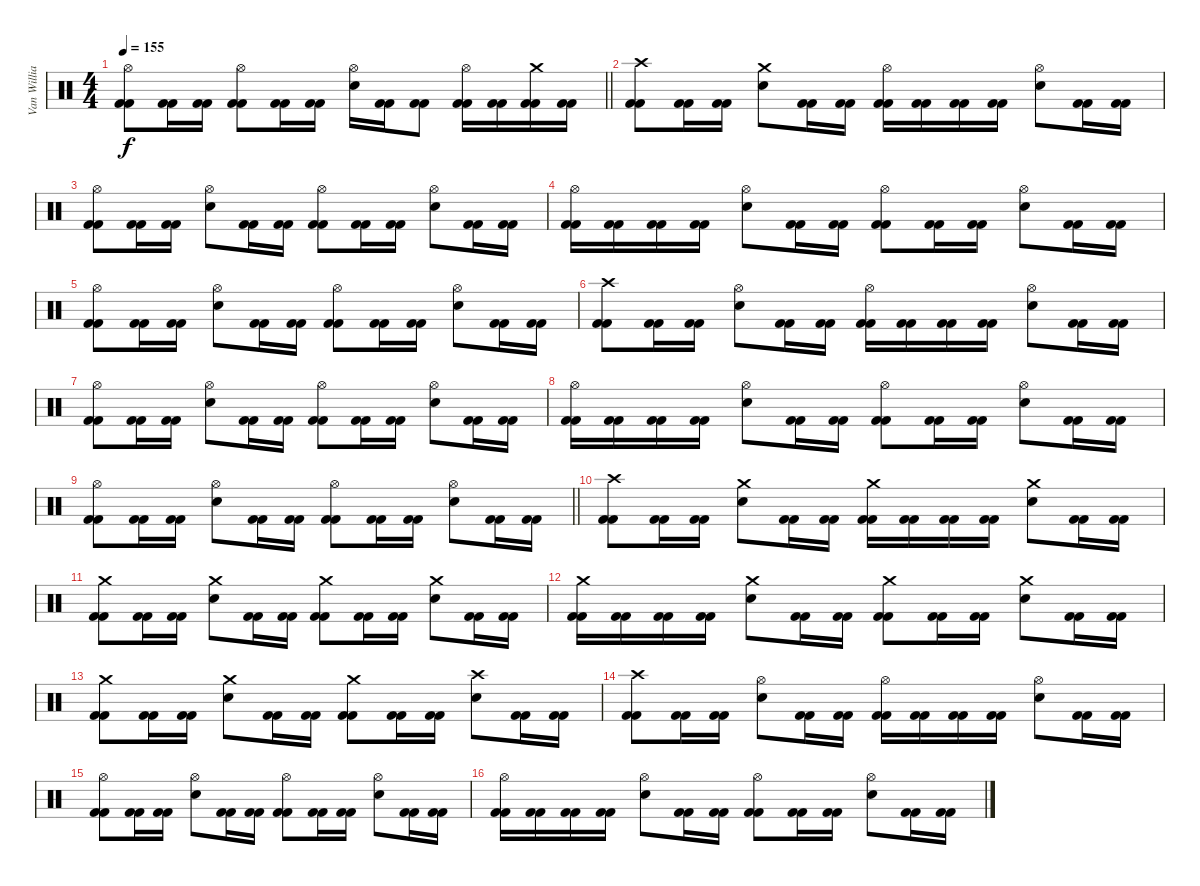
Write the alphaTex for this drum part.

\track ("Van Williams" "Van Willia") {instrument percussion}
\staff {score}
\articulation defaults
\ts (4 4)
\tempo 155
\clef neutral
\barLineRight lightlight
\ks c
("Hi-Hat (open)" "Kick (hit) 2" "Kick (hit) 2").8{dy f} ("Kick (hit) 2" "Kick (hit) 2").16 ("Kick (hit) 2" "Kick (hit) 2").16 ("Hi-Hat (open)" "Kick (hit) 2" "Kick (hit) 2").8 ("Kick (hit) 2" "Kick (hit) 2").16 ("Kick (hit) 2" "Kick (hit) 2").16 ("Hi-Hat (open)" "Electric Snare (hit)").16 ("Kick (hit) 2" "Kick (hit) 2").16 ("Kick (hit) 2" "Kick (hit) 2").8 ("Hi-Hat (open)" "Kick (hit) 2" "Kick (hit) 2").16 ("Kick (hit) 2" "Kick (hit) 2").16 ("Crash medium (hit)" "Kick (hit) 2" "Kick (hit) 2").16 ("Kick (hit) 2" "Kick (hit) 2").16 |
("Crash high (hit)" "Kick (hit) 2" "Kick (hit) 2").8 ("Kick (hit) 2" "Kick (hit) 2").16 ("Kick (hit) 2" "Kick (hit) 2").16 ("Crash medium (hit)" "Electric Snare (hit)").8 ("Kick (hit) 2" "Kick (hit) 2").16 ("Kick (hit) 2" "Kick (hit) 2").16 ("Hi-Hat (open)" "Kick (hit) 2" "Kick (hit) 2").16 ("Kick (hit) 2" "Kick (hit) 2").16 ("Kick (hit) 2" "Kick (hit) 2").16 ("Kick (hit) 2" "Kick (hit) 2").16 ("Hi-Hat (open)" "Electric Snare (hit)").8 ("Kick (hit) 2" "Kick (hit) 2").16 ("Kick (hit) 2" "Kick (hit) 2").16 |
("Hi-Hat (open)" "Kick (hit) 2" "Kick (hit) 2").8 ("Kick (hit) 2" "Kick (hit) 2").16 ("Kick (hit) 2" "Kick (hit) 2").16 ("Hi-Hat (open)" "Electric Snare (hit)").8 ("Kick (hit) 2" "Kick (hit) 2").16 ("Kick (hit) 2" "Kick (hit) 2").16 ("Hi-Hat (open)" "Kick (hit) 2" "Kick (hit) 2").8 ("Kick (hit) 2" "Kick (hit) 2").16 ("Kick (hit) 2" "Kick (hit) 2").16 ("Hi-Hat (open)" "Electric Snare (hit)").8 ("Kick (hit) 2" "Kick (hit) 2").16 ("Kick (hit) 2" "Kick (hit) 2").16 |
("Hi-Hat (open)" "Kick (hit) 2" "Kick (hit) 2").16 ("Kick (hit) 2" "Kick (hit) 2").16 ("Kick (hit) 2" "Kick (hit) 2").16 ("Kick (hit) 2" "Kick (hit) 2").16 ("Hi-Hat (open)" "Electric Snare (hit)").8 ("Kick (hit) 2" "Kick (hit) 2").16 ("Kick (hit) 2" "Kick (hit) 2").16 ("Hi-Hat (open)" "Kick (hit) 2" "Kick (hit) 2").8 ("Kick (hit) 2" "Kick (hit) 2").16 ("Kick (hit) 2" "Kick (hit) 2").16 ("Hi-Hat (open)" "Electric Snare (hit)").8 ("Kick (hit) 2" "Kick (hit) 2").16 ("Kick (hit) 2" "Kick (hit) 2").16 |
("Hi-Hat (open)" "Kick (hit) 2" "Kick (hit) 2").8 ("Kick (hit) 2" "Kick (hit) 2").16 ("Kick (hit) 2" "Kick (hit) 2").16 ("Hi-Hat (open)" "Electric Snare (hit)").8 ("Kick (hit) 2" "Kick (hit) 2").16 ("Kick (hit) 2" "Kick (hit) 2").16 ("Hi-Hat (open)" "Kick (hit) 2" "Kick (hit) 2").8 ("Kick (hit) 2" "Kick (hit) 2").16 ("Kick (hit) 2" "Kick (hit) 2").16 ("Hi-Hat (open)" "Electric Snare (hit)").8 ("Kick (hit) 2" "Kick (hit) 2").16 ("Kick (hit) 2" "Kick (hit) 2").16 |
("Crash high (hit)" "Kick (hit) 2" "Kick (hit) 2").8 ("Kick (hit) 2" "Kick (hit) 2").16 ("Kick (hit) 2" "Kick (hit) 2").16 ("Hi-Hat (open)" "Electric Snare (hit)").8 ("Kick (hit) 2" "Kick (hit) 2").16 ("Kick (hit) 2" "Kick (hit) 2").16 ("Hi-Hat (open)" "Kick (hit) 2" "Kick (hit) 2").16 ("Kick (hit) 2" "Kick (hit) 2").16 ("Kick (hit) 2" "Kick (hit) 2").16 ("Kick (hit) 2" "Kick (hit) 2").16 ("Hi-Hat (open)" "Electric Snare (hit)").8 ("Kick (hit) 2" "Kick (hit) 2").16 ("Kick (hit) 2" "Kick (hit) 2").16 |
("Hi-Hat (open)" "Kick (hit) 2" "Kick (hit) 2").8 ("Kick (hit) 2" "Kick (hit) 2").16 ("Kick (hit) 2" "Kick (hit) 2").16 ("Hi-Hat (open)" "Electric Snare (hit)").8 ("Kick (hit) 2" "Kick (hit) 2").16 ("Kick (hit) 2" "Kick (hit) 2").16 ("Hi-Hat (open)" "Kick (hit) 2" "Kick (hit) 2").8 ("Kick (hit) 2" "Kick (hit) 2").16 ("Kick (hit) 2" "Kick (hit) 2").16 ("Hi-Hat (open)" "Electric Snare (hit)").8 ("Kick (hit) 2" "Kick (hit) 2").16 ("Kick (hit) 2" "Kick (hit) 2").16 |
("Hi-Hat (open)" "Kick (hit) 2" "Kick (hit) 2").16 ("Kick (hit) 2" "Kick (hit) 2").16 ("Kick (hit) 2" "Kick (hit) 2").16 ("Kick (hit) 2" "Kick (hit) 2").16 ("Hi-Hat (open)" "Electric Snare (hit)").8 ("Kick (hit) 2" "Kick (hit) 2").16 ("Kick (hit) 2" "Kick (hit) 2").16 ("Hi-Hat (open)" "Kick (hit) 2" "Kick (hit) 2").8 ("Kick (hit) 2" "Kick (hit) 2").16 ("Kick (hit) 2" "Kick (hit) 2").16 ("Hi-Hat (open)" "Electric Snare (hit)").8 ("Kick (hit) 2" "Kick (hit) 2").16 ("Kick (hit) 2" "Kick (hit) 2").16 |
\barLineRight lightlight
("Hi-Hat (open)" "Kick (hit) 2" "Kick (hit) 2").8 ("Kick (hit) 2" "Kick (hit) 2").16 ("Kick (hit) 2" "Kick (hit) 2").16 ("Hi-Hat (open)" "Electric Snare (hit)").8 ("Kick (hit) 2" "Kick (hit) 2").16 ("Kick (hit) 2" "Kick (hit) 2").16 ("Hi-Hat (open)" "Kick (hit) 2" "Kick (hit) 2").8 ("Kick (hit) 2" "Kick (hit) 2").16 ("Kick (hit) 2" "Kick (hit) 2").16 ("Hi-Hat (open)" "Electric Snare (hit)").8 ("Kick (hit) 2" "Kick (hit) 2").16 ("Kick (hit) 2" "Kick (hit) 2").16 |
("Crash high (hit)" "Kick (hit) 2" "Kick (hit) 2").8 ("Kick (hit) 2" "Kick (hit) 2").16 ("Kick (hit) 2" "Kick (hit) 2").16 ("Crash medium (hit)" "Electric Snare (hit)").8 ("Kick (hit) 2" "Kick (hit) 2").16 ("Kick (hit) 2" "Kick (hit) 2").16 ("Crash medium (hit)" "Kick (hit) 2" "Kick (hit) 2").16 ("Kick (hit) 2" "Kick (hit) 2").16 ("Kick (hit) 2" "Kick (hit) 2").16 ("Kick (hit) 2" "Kick (hit) 2").16 ("Crash medium (hit)" "Electric Snare (hit)").8 ("Kick (hit) 2" "Kick (hit) 2").16 ("Kick (hit) 2" "Kick (hit) 2").16 |
("Crash medium (hit)" "Kick (hit) 2" "Kick (hit) 2").8 ("Kick (hit) 2" "Kick (hit) 2").16 ("Kick (hit) 2" "Kick (hit) 2").16 ("Crash medium (hit)" "Electric Snare (hit)").8 ("Kick (hit) 2" "Kick (hit) 2").16 ("Kick (hit) 2" "Kick (hit) 2").16 ("Crash medium (hit)" "Kick (hit) 2" "Kick (hit) 2").8 ("Kick (hit) 2" "Kick (hit) 2").16 ("Kick (hit) 2" "Kick (hit) 2").16 ("Crash medium (hit)" "Electric Snare (hit)").8 ("Kick (hit) 2" "Kick (hit) 2").16 ("Kick (hit) 2" "Kick (hit) 2").16 |
("Crash medium (hit)" "Kick (hit) 2" "Kick (hit) 2").16 ("Kick (hit) 2" "Kick (hit) 2").16 ("Kick (hit) 2" "Kick (hit) 2").16 ("Kick (hit) 2" "Kick (hit) 2").16 ("Crash medium (hit)" "Electric Snare (hit)").8 ("Kick (hit) 2" "Kick (hit) 2").16 ("Kick (hit) 2" "Kick (hit) 2").16 ("Crash medium (hit)" "Kick (hit) 2" "Kick (hit) 2").8 ("Kick (hit) 2" "Kick (hit) 2").16 ("Kick (hit) 2" "Kick (hit) 2").16 ("Crash medium (hit)" "Electric Snare (hit)").8 ("Kick (hit) 2" "Kick (hit) 2").16 ("Kick (hit) 2" "Kick (hit) 2").16 |
("Crash medium (hit)" "Kick (hit) 2" "Kick (hit) 2").8 ("Kick (hit) 2" "Kick (hit) 2").16 ("Kick (hit) 2" "Kick (hit) 2").16 ("Crash medium (hit)" "Electric Snare (hit)").8 ("Kick (hit) 2" "Kick (hit) 2").16 ("Kick (hit) 2" "Kick (hit) 2").16 ("Crash medium (hit)" "Kick (hit) 2" "Kick (hit) 2").8 ("Kick (hit) 2" "Kick (hit) 2").16 ("Kick (hit) 2" "Kick (hit) 2").16 ("Crash high (hit)" "Electric Snare (hit)").8 ("Kick (hit) 2" "Kick (hit) 2").16 ("Kick (hit) 2" "Kick (hit) 2").16 |
("Crash high (hit)" "Kick (hit) 2" "Kick (hit) 2").8 ("Kick (hit) 2" "Kick (hit) 2").16 ("Kick (hit) 2" "Kick (hit) 2").16 ("Hi-Hat (open)" "Electric Snare (hit)").8 ("Kick (hit) 2" "Kick (hit) 2").16 ("Kick (hit) 2" "Kick (hit) 2").16 ("Hi-Hat (open)" "Kick (hit) 2" "Kick (hit) 2").16 ("Kick (hit) 2" "Kick (hit) 2").16 ("Kick (hit) 2" "Kick (hit) 2").16 ("Kick (hit) 2" "Kick (hit) 2").16 ("Hi-Hat (open)" "Electric Snare (hit)").8 ("Kick (hit) 2" "Kick (hit) 2").16 ("Kick (hit) 2" "Kick (hit) 2").16 |
("Hi-Hat (open)" "Kick (hit) 2" "Kick (hit) 2").8 ("Kick (hit) 2" "Kick (hit) 2").16 ("Kick (hit) 2" "Kick (hit) 2").16 ("Hi-Hat (open)" "Electric Snare (hit)").8 ("Kick (hit) 2" "Kick (hit) 2").16 ("Kick (hit) 2" "Kick (hit) 2").16 ("Hi-Hat (open)" "Kick (hit) 2" "Kick (hit) 2").8 ("Kick (hit) 2" "Kick (hit) 2").16 ("Kick (hit) 2" "Kick (hit) 2").16 ("Hi-Hat (open)" "Electric Snare (hit)").8 ("Kick (hit) 2" "Kick (hit) 2").16 ("Kick (hit) 2" "Kick (hit) 2").16 |
("Hi-Hat (open)" "Kick (hit) 2" "Kick (hit) 2").16 ("Kick (hit) 2" "Kick (hit) 2").16 ("Kick (hit) 2" "Kick (hit) 2").16 ("Kick (hit) 2" "Kick (hit) 2").16 ("Hi-Hat (open)" "Electric Snare (hit)").8 ("Kick (hit) 2" "Kick (hit) 2").16 ("Kick (hit) 2" "Kick (hit) 2").16 ("Hi-Hat (open)" "Kick (hit) 2" "Kick (hit) 2").8 ("Kick (hit) 2" "Kick (hit) 2").16 ("Kick (hit) 2" "Kick (hit) 2").16 ("Hi-Hat (open)" "Electric Snare (hit)").8 ("Kick (hit) 2" "Kick (hit) 2").16 ("Kick (hit) 2" "Kick (hit) 2").16
